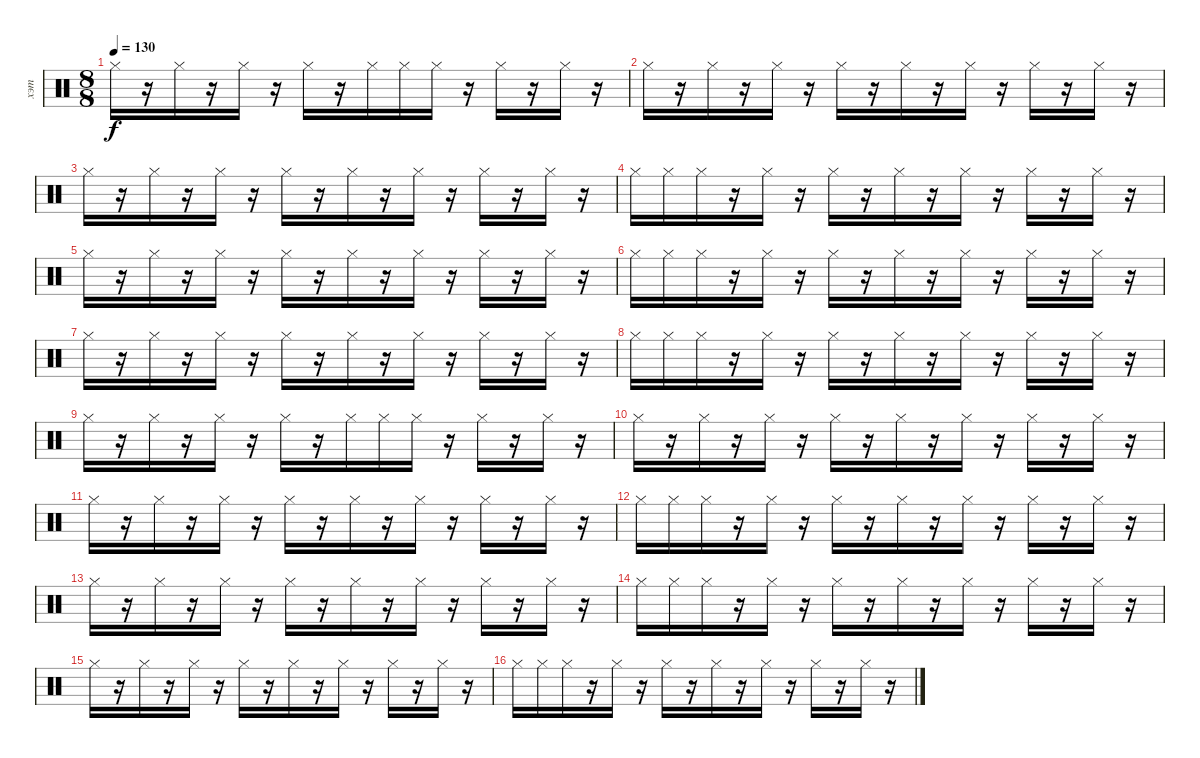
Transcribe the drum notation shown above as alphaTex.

\track ("хэт" "хэт") {instrument percussion}
\staff {score}
\articulation defaults
\ts (8 8)
\tempo 130
\clef neutral
\ks c "Hi-Hat (closed)".16{dy f}
r.16 "Hi-Hat (closed)".16 r.16 "Hi-Hat (closed)".16 r.16 "Hi-Hat (closed)".16 r.16 "Hi-Hat (closed)".16 "Hi-Hat (closed)".16 "Hi-Hat (closed)".16 r.16 "Hi-Hat (closed)".16 r.16 "Hi-Hat (closed)".16 r.16 |
"Hi-Hat (closed)".16 r.16 "Hi-Hat (closed)".16 r.16 "Hi-Hat (closed)".16 r.16 "Hi-Hat (closed)".16 r.16 "Hi-Hat (closed)".16 r.16 "Hi-Hat (closed)".16 r.16 "Hi-Hat (closed)".16 r.16 "Hi-Hat (closed)".16 r.16 |
"Hi-Hat (closed)".16 r.16 "Hi-Hat (closed)".16 r.16 "Hi-Hat (closed)".16 r.16 "Hi-Hat (closed)".16 r.16 "Hi-Hat (closed)".16 r.16 "Hi-Hat (closed)".16 r.16 "Hi-Hat (closed)".16 r.16 "Hi-Hat (closed)".16 r.16 |
"Hi-Hat (closed)".16 "Hi-Hat (closed)".16 "Hi-Hat (closed)".16 r.16 "Hi-Hat (closed)".16 r.16 "Hi-Hat (closed)".16 r.16 "Hi-Hat (closed)".16 r.16 "Hi-Hat (closed)".16 r.16 "Hi-Hat (closed)".16 r.16 "Hi-Hat (closed)".16 r.16 |
"Hi-Hat (closed)".16 r.16 "Hi-Hat (closed)".16 r.16 "Hi-Hat (closed)".16 r.16 "Hi-Hat (closed)".16 r.16 "Hi-Hat (closed)".16 r.16 "Hi-Hat (closed)".16 r.16 "Hi-Hat (closed)".16 r.16 "Hi-Hat (closed)".16 r.16 |
"Hi-Hat (closed)".16 "Hi-Hat (closed)".16 "Hi-Hat (closed)".16 r.16 "Hi-Hat (closed)".16 r.16 "Hi-Hat (closed)".16 r.16 "Hi-Hat (closed)".16 r.16 "Hi-Hat (closed)".16 r.16 "Hi-Hat (closed)".16 r.16 "Hi-Hat (closed)".16 r.16 |
"Hi-Hat (closed)".16 r.16 "Hi-Hat (closed)".16 r.16 "Hi-Hat (closed)".16 r.16 "Hi-Hat (closed)".16 r.16 "Hi-Hat (closed)".16 r.16 "Hi-Hat (closed)".16 r.16 "Hi-Hat (closed)".16 r.16 "Hi-Hat (closed)".16 r.16 |
"Hi-Hat (closed)".16 "Hi-Hat (closed)".16 "Hi-Hat (closed)".16 r.16 "Hi-Hat (closed)".16 r.16 "Hi-Hat (closed)".16 r.16 "Hi-Hat (closed)".16 r.16 "Hi-Hat (closed)".16 r.16 "Hi-Hat (closed)".16 r.16 "Hi-Hat (closed)".16 r.16 |
"Hi-Hat (closed)".16 r.16 "Hi-Hat (closed)".16 r.16 "Hi-Hat (closed)".16 r.16 "Hi-Hat (closed)".16 r.16 "Hi-Hat (closed)".16 "Hi-Hat (closed)".16 "Hi-Hat (closed)".16 r.16 "Hi-Hat (closed)".16 r.16 "Hi-Hat (closed)".16 r.16 |
"Hi-Hat (closed)".16 r.16 "Hi-Hat (closed)".16 r.16 "Hi-Hat (closed)".16 r.16 "Hi-Hat (closed)".16 r.16 "Hi-Hat (closed)".16 r.16 "Hi-Hat (closed)".16 r.16 "Hi-Hat (closed)".16 r.16 "Hi-Hat (closed)".16 r.16 |
"Hi-Hat (closed)".16 r.16 "Hi-Hat (closed)".16 r.16 "Hi-Hat (closed)".16 r.16 "Hi-Hat (closed)".16 r.16 "Hi-Hat (closed)".16 r.16 "Hi-Hat (closed)".16 r.16 "Hi-Hat (closed)".16 r.16 "Hi-Hat (closed)".16 r.16 |
"Hi-Hat (closed)".16 "Hi-Hat (closed)".16 "Hi-Hat (closed)".16 r.16 "Hi-Hat (closed)".16 r.16 "Hi-Hat (closed)".16 r.16 "Hi-Hat (closed)".16 r.16 "Hi-Hat (closed)".16 r.16 "Hi-Hat (closed)".16 r.16 "Hi-Hat (closed)".16 r.16 |
"Hi-Hat (closed)".16 r.16 "Hi-Hat (closed)".16 r.16 "Hi-Hat (closed)".16 r.16 "Hi-Hat (closed)".16 r.16 "Hi-Hat (closed)".16 r.16 "Hi-Hat (closed)".16 r.16 "Hi-Hat (closed)".16 r.16 "Hi-Hat (closed)".16 r.16 |
"Hi-Hat (closed)".16 "Hi-Hat (closed)".16 "Hi-Hat (closed)".16 r.16 "Hi-Hat (closed)".16 r.16 "Hi-Hat (closed)".16 r.16 "Hi-Hat (closed)".16 r.16 "Hi-Hat (closed)".16 r.16 "Hi-Hat (closed)".16 r.16 "Hi-Hat (closed)".16 r.16 |
"Hi-Hat (closed)".16 r.16 "Hi-Hat (closed)".16 r.16 "Hi-Hat (closed)".16 r.16 "Hi-Hat (closed)".16 r.16 "Hi-Hat (closed)".16 r.16 "Hi-Hat (closed)".16 r.16 "Hi-Hat (closed)".16 r.16 "Hi-Hat (closed)".16 r.16 |
"Hi-Hat (closed)".16 "Hi-Hat (closed)".16 "Hi-Hat (closed)".16 r.16 "Hi-Hat (closed)".16 r.16 "Hi-Hat (closed)".16 r.16 "Hi-Hat (closed)".16 r.16 "Hi-Hat (closed)".16 r.16 "Hi-Hat (closed)".16 r.16 "Hi-Hat (closed)".16 r.16
